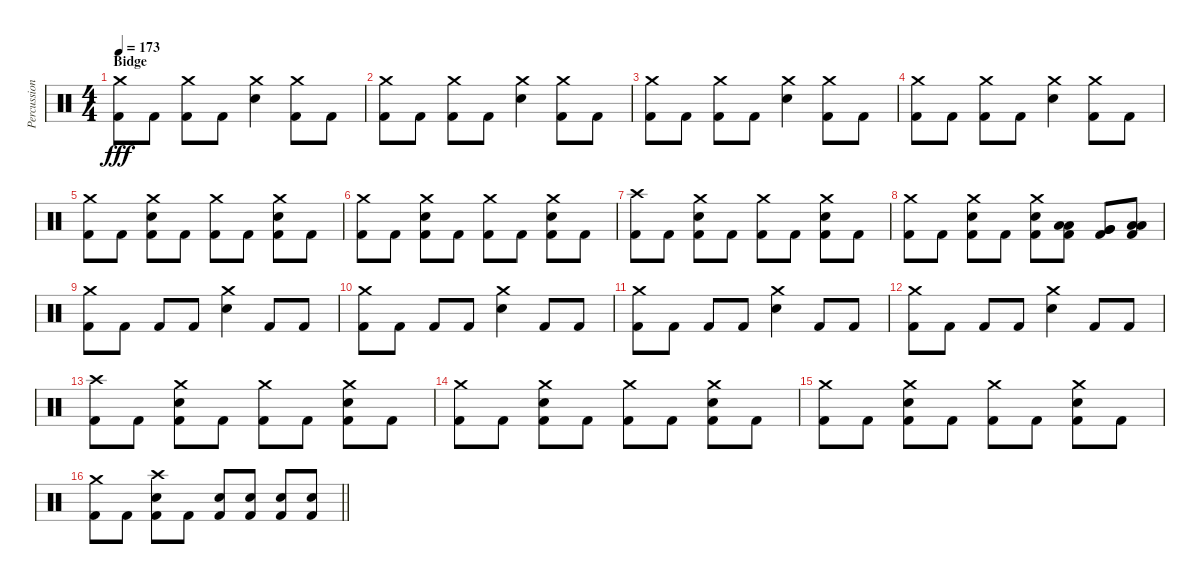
\track ("Percussion" "Percussion") {instrument percussion}
\staff {score}
\articulation defaults
\ts (4 4)
\section ("" "Bidge")
\tempo 173
\clef neutral
\ks c
("Crash medium (hit)" "Kick (hit) 2").8{dy fff} "Kick (hit) 2".8 ("Crash medium (hit)" "Kick (hit) 2").8 "Kick (hit) 2".8 ("Crash medium (hit)" "Electric Snare (hit)").4 ("Crash medium (hit)" "Kick (hit) 2").8 "Kick (hit) 2".8 |
("Crash medium (hit)" "Kick (hit) 2").8 "Kick (hit) 2".8 ("Crash medium (hit)" "Kick (hit) 2").8 "Kick (hit) 2".8 ("Crash medium (hit)" "Electric Snare (hit)").4 ("Crash medium (hit)" "Kick (hit) 2").8 "Kick (hit) 2".8 |
("Crash medium (hit)" "Kick (hit) 2").8 "Kick (hit) 2".8 ("Crash medium (hit)" "Kick (hit) 2").8 "Kick (hit) 2".8 ("Crash medium (hit)" "Electric Snare (hit)").4 ("Crash medium (hit)" "Kick (hit) 2").8 "Kick (hit) 2".8 |
("Crash medium (hit)" "Kick (hit) 2").8 "Kick (hit) 2".8 ("Crash medium (hit)" "Kick (hit) 2").8 "Kick (hit) 2".8 ("Crash medium (hit)" "Electric Snare (hit)").4 ("Crash medium (hit)" "Kick (hit) 2").8 "Kick (hit) 2".8 |
("Crash medium (hit)" "Kick (hit) 2").8 "Kick (hit) 2".8 ("Crash medium (hit)" "Electric Snare (hit)" "Kick (hit) 2").8 "Kick (hit) 2".8 ("Crash medium (hit)" "Kick (hit) 2").8 "Kick (hit) 2".8 ("Crash medium (hit)" "Electric Snare (hit)" "Kick (hit) 2").8 "Kick (hit) 2".8 |
("Crash medium (hit)" "Kick (hit) 2").8 "Kick (hit) 2".8 ("Crash medium (hit)" "Electric Snare (hit)" "Kick (hit) 2").8 "Kick (hit) 2".8 ("Crash medium (hit)" "Kick (hit) 2").8 "Kick (hit) 2".8 ("Crash medium (hit)" "Electric Snare (hit)" "Kick (hit) 2").8 "Kick (hit) 2".8 |
("Crash high (hit)" "Kick (hit) 2").8 "Kick (hit) 2".8 ("Crash medium (hit)" "Electric Snare (hit)" "Kick (hit) 2").8 "Kick (hit) 2".8 ("Crash medium (hit)" "Kick (hit) 2").8 "Kick (hit) 2".8 ("Crash medium (hit)" "Electric Snare (hit)" "Kick (hit) 2").8 "Kick (hit) 2".8 |
("Crash medium (hit)" "Kick (hit) 2").8 "Kick (hit) 2".8 ("Crash medium (hit)" "Electric Snare (hit)" "Kick (hit) 2").8 "Kick (hit) 2".8 ("Crash medium (hit)" "Electric Snare (hit)" "Kick (hit) 2").8 ("Low Tom (hit)" "Low Tom (hit)" "Kick (hit) 2").8 ("Very Low Tom (hit)" "Very Low Tom (hit)" "Kick (hit) 2").8 ("Low Floor Tom (hit)" "Low Floor Tom (hit)" "Kick (hit) 2").8 |
("Crash medium (hit)" "Kick (hit) 2").8 "Kick (hit) 2".8 "Kick (hit) 2".8 "Kick (hit) 2".8 ("Crash medium (hit)" "Electric Snare (hit)").4 "Kick (hit) 2".8 "Kick (hit) 2".8 |
("Crash medium (hit)" "Kick (hit) 2").8 "Kick (hit) 2".8 "Kick (hit) 2".8 "Kick (hit) 2".8 ("Crash medium (hit)" "Electric Snare (hit)").4 "Kick (hit) 2".8 "Kick (hit) 2".8 |
("Crash medium (hit)" "Kick (hit) 2").8 "Kick (hit) 2".8 "Kick (hit) 2".8 "Kick (hit) 2".8 ("Crash medium (hit)" "Electric Snare (hit)").4 "Kick (hit) 2".8 "Kick (hit) 2".8 |
("Crash medium (hit)" "Kick (hit) 2").8 "Kick (hit) 2".8 "Kick (hit) 2".8 "Kick (hit) 2".8 ("Crash medium (hit)" "Electric Snare (hit)").4 "Kick (hit) 2".8 "Kick (hit) 2".8 |
("Crash high (hit)" "Kick (hit) 2").8 "Kick (hit) 2".8 ("Crash medium (hit)" "Electric Snare (hit)" "Kick (hit) 2").8 "Kick (hit) 2".8 ("Crash medium (hit)" "Kick (hit) 2").8 "Kick (hit) 2".8 ("Crash medium (hit)" "Electric Snare (hit)" "Kick (hit) 2").8 "Kick (hit) 2".8 |
("Crash medium (hit)" "Kick (hit) 2").8 "Kick (hit) 2".8 ("Crash medium (hit)" "Electric Snare (hit)" "Kick (hit) 2").8 "Kick (hit) 2".8 ("Crash medium (hit)" "Kick (hit) 2").8 "Kick (hit) 2".8 ("Crash medium (hit)" "Electric Snare (hit)" "Kick (hit) 2").8 "Kick (hit) 2".8 |
("Crash medium (hit)" "Kick (hit) 2").8 "Kick (hit) 2".8 ("Crash medium (hit)" "Electric Snare (hit)" "Kick (hit) 2").8 "Kick (hit) 2".8 ("Crash medium (hit)" "Kick (hit) 2").8 "Kick (hit) 2".8 ("Crash medium (hit)" "Electric Snare (hit)" "Kick (hit) 2").8 "Kick (hit) 2".8 |
\barLineRight lightlight
("Crash medium (hit)" "Kick (hit) 2").8 "Kick (hit) 2".8 ("Crash high (hit)" "Electric Snare (hit)" "Kick (hit) 2").8 "Kick (hit) 2".8 ("Electric Snare (hit)" "Kick (hit) 2").8 ("Electric Snare (hit)" "Kick (hit) 2").8 ("Electric Snare (hit)" "Kick (hit) 2").8 ("Electric Snare (hit)" "Kick (hit) 2").8
